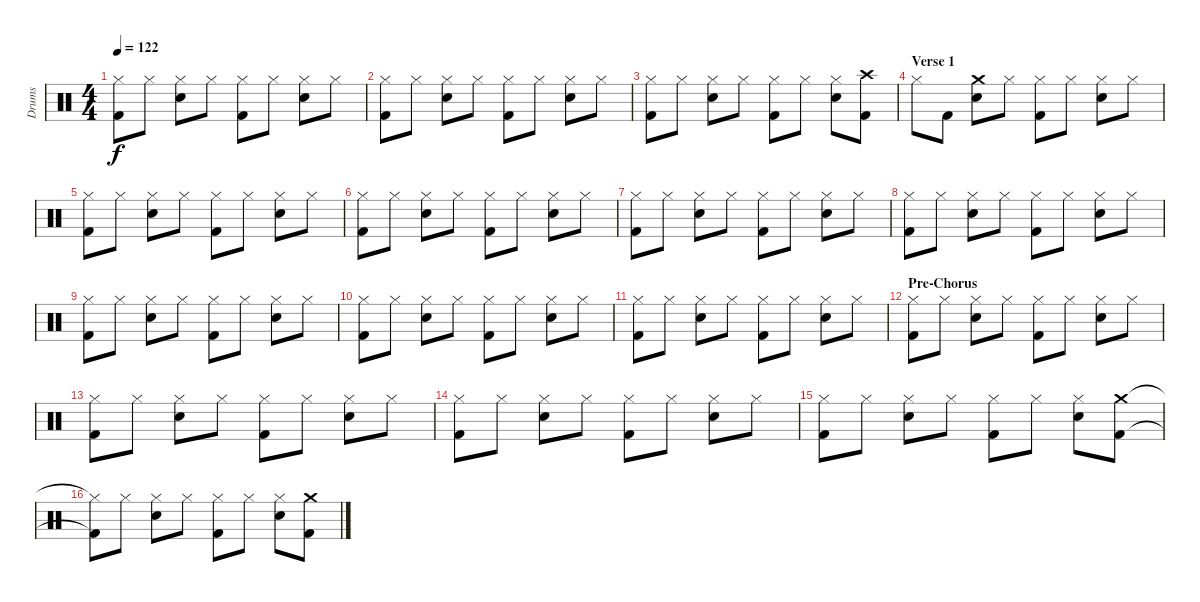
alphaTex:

\track ("Drums" "Drums") {instrument percussion}
\staff {score}
\articulation defaults
\ts (4 4)
\tempo 122
\clef neutral
\ks c
("Hi-Hat (closed)" "Kick (hit) 2").8{dy f} "Hi-Hat (closed)".8 ("Hi-Hat (closed)" "Electric Snare (hit)").8 "Hi-Hat (closed)".8 ("Hi-Hat (closed)" "Kick (hit) 2").8 "Hi-Hat (closed)".8 ("Hi-Hat (closed)" "Electric Snare (hit)").8 "Hi-Hat (closed)".8 |
("Hi-Hat (closed)" "Kick (hit) 2").8 "Hi-Hat (closed)".8 ("Hi-Hat (closed)" "Electric Snare (hit)").8 "Hi-Hat (closed)".8 ("Hi-Hat (closed)" "Kick (hit) 2").8 "Hi-Hat (closed)".8 ("Hi-Hat (closed)" "Electric Snare (hit)").8 "Hi-Hat (closed)".8 |
("Hi-Hat (closed)" "Kick (hit) 2").8 "Hi-Hat (closed)".8 ("Hi-Hat (closed)" "Electric Snare (hit)").8 "Hi-Hat (closed)".8 ("Hi-Hat (closed)" "Kick (hit) 2").8 "Hi-Hat (closed)".8 ("Hi-Hat (closed)" "Electric Snare (hit)").8 ("Crash high (hit)" "Kick (hit) 2").8 |
\section ("" "Verse 1")
"Hi-Hat (closed)".8 "Kick (hit) 2".8 ("Crash medium (hit)" "Electric Snare (hit)").8 "Hi-Hat (closed)".8 ("Hi-Hat (closed)" "Kick (hit) 2").8 "Hi-Hat (closed)".8 ("Hi-Hat (closed)" "Electric Snare (hit)").8 "Hi-Hat (closed)".8 |
("Hi-Hat (closed)" "Kick (hit) 2").8 "Hi-Hat (closed)".8 ("Hi-Hat (closed)" "Electric Snare (hit)").8 "Hi-Hat (closed)".8 ("Hi-Hat (closed)" "Kick (hit) 2").8 "Hi-Hat (closed)".8 ("Hi-Hat (closed)" "Electric Snare (hit)").8 "Hi-Hat (closed)".8 |
("Hi-Hat (closed)" "Kick (hit) 2").8 "Hi-Hat (closed)".8 ("Hi-Hat (closed)" "Electric Snare (hit)").8 "Hi-Hat (closed)".8 ("Hi-Hat (closed)" "Kick (hit) 2").8 "Hi-Hat (closed)".8 ("Hi-Hat (closed)" "Electric Snare (hit)").8 "Hi-Hat (closed)".8 |
("Hi-Hat (closed)" "Kick (hit) 2").8 "Hi-Hat (closed)".8 ("Hi-Hat (closed)" "Electric Snare (hit)").8 "Hi-Hat (closed)".8 ("Hi-Hat (closed)" "Kick (hit) 2").8 "Hi-Hat (closed)".8 ("Hi-Hat (closed)" "Electric Snare (hit)").8 "Hi-Hat (closed)".8 |
("Hi-Hat (closed)" "Kick (hit) 2").8 "Hi-Hat (closed)".8 ("Hi-Hat (closed)" "Electric Snare (hit)").8 "Hi-Hat (closed)".8 ("Hi-Hat (closed)" "Kick (hit) 2").8 "Hi-Hat (closed)".8 ("Hi-Hat (closed)" "Electric Snare (hit)").8 "Hi-Hat (closed)".8 |
("Hi-Hat (closed)" "Kick (hit) 2").8 "Hi-Hat (closed)".8 ("Hi-Hat (closed)" "Electric Snare (hit)").8 "Hi-Hat (closed)".8 ("Hi-Hat (closed)" "Kick (hit) 2").8 "Hi-Hat (closed)".8 ("Hi-Hat (closed)" "Electric Snare (hit)").8 "Hi-Hat (closed)".8 |
("Hi-Hat (closed)" "Kick (hit) 2").8 "Hi-Hat (closed)".8 ("Hi-Hat (closed)" "Electric Snare (hit)").8 "Hi-Hat (closed)".8 ("Hi-Hat (closed)" "Kick (hit) 2").8 "Hi-Hat (closed)".8 ("Hi-Hat (closed)" "Electric Snare (hit)").8 "Hi-Hat (closed)".8 |
("Hi-Hat (closed)" "Kick (hit) 2").8 "Hi-Hat (closed)".8 ("Hi-Hat (closed)" "Electric Snare (hit)").8 "Hi-Hat (closed)".8 ("Hi-Hat (closed)" "Kick (hit) 2").8 "Hi-Hat (closed)".8 ("Hi-Hat (closed)" "Electric Snare (hit)").8 "Hi-Hat (closed)".8 |
\section ("" "Pre-Chorus")
("Hi-Hat (closed)" "Kick (hit) 2").8 "Hi-Hat (closed)".8 ("Hi-Hat (closed)" "Electric Snare (hit)").8 "Hi-Hat (closed)".8 ("Hi-Hat (closed)" "Kick (hit) 2").8 "Hi-Hat (closed)".8 ("Hi-Hat (closed)" "Electric Snare (hit)").8 "Hi-Hat (closed)".8 |
("Hi-Hat (closed)" "Kick (hit) 2").8 "Hi-Hat (closed)".8 ("Hi-Hat (closed)" "Electric Snare (hit)").8 "Hi-Hat (closed)".8 ("Hi-Hat (closed)" "Kick (hit) 2").8 "Hi-Hat (closed)".8 ("Hi-Hat (closed)" "Electric Snare (hit)").8 "Hi-Hat (closed)".8 |
("Hi-Hat (closed)" "Kick (hit) 2").8 "Hi-Hat (closed)".8 ("Hi-Hat (closed)" "Electric Snare (hit)").8 "Hi-Hat (closed)".8 ("Hi-Hat (closed)" "Kick (hit) 2").8 "Hi-Hat (closed)".8 ("Hi-Hat (closed)" "Electric Snare (hit)").8 "Hi-Hat (closed)".8 |
("Hi-Hat (closed)" "Kick (hit) 2").8 "Hi-Hat (closed)".8 ("Hi-Hat (closed)" "Electric Snare (hit)").8 "Hi-Hat (closed)".8 ("Hi-Hat (closed)" "Kick (hit) 2").8 "Hi-Hat (closed)".8 ("Hi-Hat (closed)" "Electric Snare (hit)").8 ("Crash medium (hit)" "Kick (hit) 2").8 |
("Hi-Hat (closed)"{t} "Kick (hit) 2"{t}).8 "Hi-Hat (closed)".8 ("Hi-Hat (closed)" "Electric Snare (hit)").8 "Hi-Hat (closed)".8 ("Hi-Hat (closed)" "Kick (hit) 2").8 "Hi-Hat (closed)".8 ("Hi-Hat (closed)" "Electric Snare (hit)").8 ("Crash medium (hit)" "Kick (hit) 2").8
